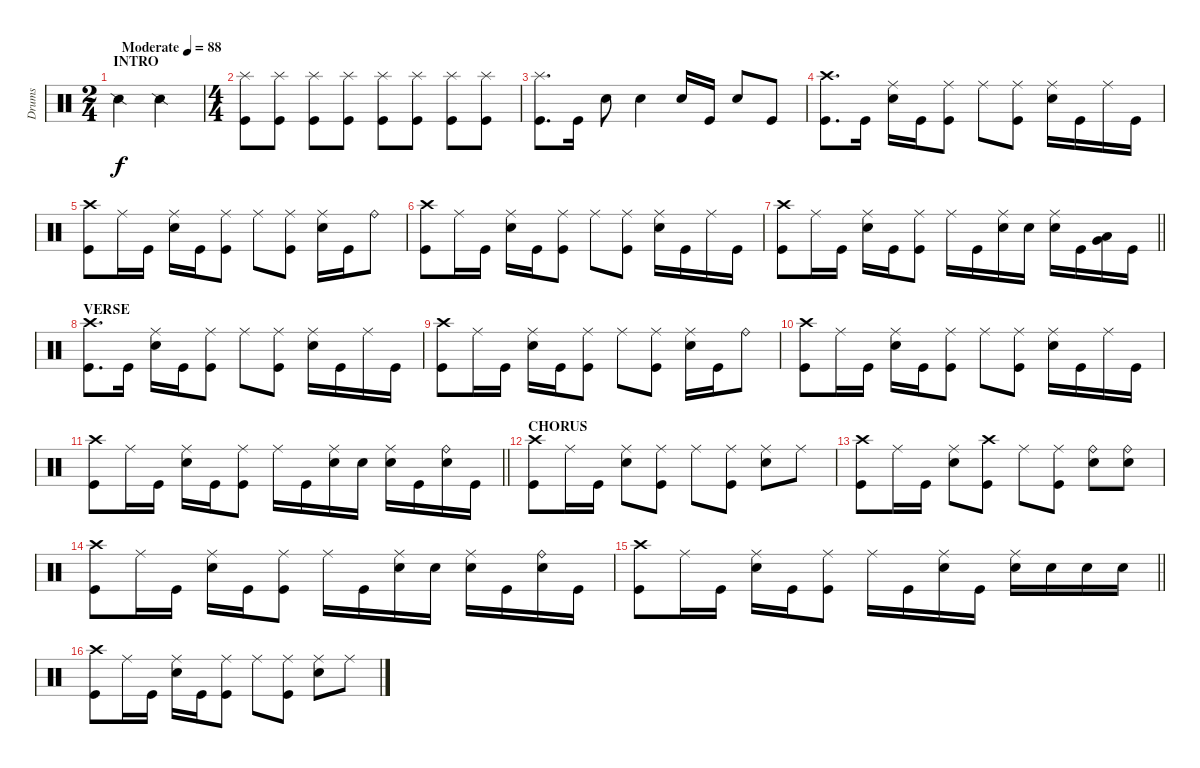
\track ("Drums" "Drums") {instrument percussion}
\staff
\articulation defaults
\ts (2 4)
\section ("" "INTRO")
\tempo (88 "Moderate")
\clef neutral
\ks c "Snare (side stick) 2".4{dy f} "Snare (side stick) 2".4
|
\ts (4 4)
("Splash (hit)" "Kick (hit)").8 ("Splash (hit)" "Kick (hit)").8 ("Splash (hit)" "Kick (hit)").8 ("Splash (hit)" "Kick (hit)").8 ("Splash (hit)" "Kick (hit)").8 ("Splash (hit)" "Kick (hit)").8 ("Splash (hit)" "Kick (hit)").8 ("Splash (hit)" "Kick (hit)").8 |
("Splash (hit)" "Kick (hit)").8{d} "Kick (hit)".16 "Electric Snare (hit)".8 "Electric Snare (hit)".4 "Electric Snare (hit)".16 "Kick (hit)".16 "Electric Snare (hit)".8 "Kick (hit)".8 |
("Crash high (hit)" "Kick (hit)").8{d} "Kick (hit)".16 ("Ride (middle)" "Electric Snare (hit)").16 "Kick (hit)".16 ("Ride (middle)" "Kick (hit)").8 "Ride (middle)".8 ("Ride (middle)" "Kick (hit)").8 ("Ride (middle)" "Electric Snare (hit)").16 "Kick (hit)".16 "Ride (middle)".16 "Kick (hit)".16 |
("Crash high (hit)" "Kick (hit)").8 "Ride (middle)".16 "Kick (hit)".16 ("Ride (middle)" "Electric Snare (hit)").16 "Kick (hit)".16 ("Ride (middle)" "Kick (hit)").8 "Ride (middle)".8 ("Ride (middle)" "Kick (hit)").8 ("Ride (middle)" "Electric Snare (hit)").16 "Kick (hit)".16 "Ride (bell)".8 |
("Crash high (hit)" "Kick (hit)").8 "Ride (middle)".16 "Kick (hit)".16 ("Ride (middle)" "Electric Snare (hit)").16 "Kick (hit)".16 ("Ride (middle)" "Kick (hit)").8 "Ride (middle)".8 ("Ride (middle)" "Kick (hit)").8 ("Ride (middle)" "Electric Snare (hit)").16 "Kick (hit)".16 "Ride (middle)".16 "Kick (hit)".16 |
\barLineRight lightlight
("Crash high (hit)" "Kick (hit)").8 "Ride (middle)".16 "Kick (hit)".16 ("Ride (middle)" "Electric Snare (hit)").16 "Kick (hit)".16 ("Ride (middle)" "Kick (hit)").8 "Ride (middle)".16 "Kick (hit)".16 ("Ride (middle)" "Electric Snare (hit)").16 "Electric Snare (hit)".16 ("Ride (middle)" "Electric Snare (hit)").16 "Kick (hit)".16 ("Very Low Tom (hit)" "Low Floor Tom (hit)").16 "Kick (hit)".16 |
\section ("" "VERSE")
("Crash high (hit)" "Kick (hit)").8{d} "Kick (hit)".16 ("Ride (middle)" "Electric Snare (hit)").16 "Kick (hit)".16 ("Ride (middle)" "Kick (hit)").8 "Ride (middle)".8 ("Ride (middle)" "Kick (hit)").8 ("Ride (middle)" "Electric Snare (hit)").16 "Kick (hit)".16 "Ride (middle)".16 "Kick (hit)".16 |
("Crash high (hit)" "Kick (hit)").8 "Ride (middle)".16 "Kick (hit)".16 ("Ride (middle)" "Electric Snare (hit)").16 "Kick (hit)".16 ("Ride (middle)" "Kick (hit)").8 "Ride (middle)".8 ("Ride (middle)" "Kick (hit)").8 ("Ride (middle)" "Electric Snare (hit)").16 "Kick (hit)".16 "Ride (bell)".8 |
("Crash high (hit)" "Kick (hit)").8 "Ride (middle)".16 "Kick (hit)".16 ("Ride (middle)" "Electric Snare (hit)").16 "Kick (hit)".16 ("Ride (middle)" "Kick (hit)").8 "Ride (middle)".8 ("Ride (middle)" "Kick (hit)").8 ("Ride (middle)" "Electric Snare (hit)").16 "Kick (hit)".16 "Ride (middle)".16 "Kick (hit)".16 |
\barLineRight lightlight
("Crash high (hit)" "Kick (hit)").8 "Ride (middle)".16 "Kick (hit)".16 ("Ride (middle)" "Electric Snare (hit)").16 "Kick (hit)".16 ("Ride (middle)" "Kick (hit)").8 "Ride (middle)".16 "Kick (hit)".16 ("Ride (middle)" "Electric Snare (hit)").16 "Electric Snare (hit)".16 ("Ride (middle)" "Electric Snare (hit)").16 "Kick (hit)".16 ("Ride (bell)" "Electric Snare (hit)").16 "Kick (hit)".16 |
\section ("" "CHORUS")
("Crash high (hit)" "Kick (hit)").8 "Ride (middle)".16 "Kick (hit)".16 ("Ride (middle)" "Electric Snare (hit)").8 ("Ride (middle)" "Kick (hit)").8 "Ride (middle)".8 ("Ride (middle)" "Kick (hit)").8 ("Ride (middle)" "Electric Snare (hit)").8 "Ride (middle)".8 |
("Crash high (hit)" "Kick (hit)").8 "Ride (middle)".16 "Kick (hit)".16 ("Ride (middle)" "Electric Snare (hit)").8 ("Crash high (hit)" "Kick (hit)").8 "Ride (middle)".8 ("Ride (middle)" "Kick (hit)").8 ("Ride (bell)" "Electric Snare (hit)").8 ("Ride (bell)" "Electric Snare (hit)").8 |
("Crash high (hit)" "Kick (hit)").8 "Ride (middle)".16 "Kick (hit)".16 ("Ride (middle)" "Electric Snare (hit)").16 "Kick (hit)".16 ("Ride (middle)" "Kick (hit)").8 "Ride (middle)".16 "Kick (hit)".16 ("Ride (middle)" "Electric Snare (hit)").16 "Electric Snare (hit)".16 ("Ride (middle)" "Electric Snare (hit)").16 "Kick (hit)".16 ("Ride (bell)" "Electric Snare (hit)").16 "Kick (hit)".16 |
\barLineRight lightlight
("Crash high (hit)" "Kick (hit)").8 "Ride (middle)".16 "Kick (hit)".16 ("Ride (middle)" "Electric Snare (hit)").16 "Kick (hit)".16 ("Ride (middle)" "Kick (hit)").8 "Ride (middle)".16 "Kick (hit)".16 ("Ride (middle)" "Electric Snare (hit)").16 "Kick (hit)".16 ("Ride (middle)" "Electric Snare (hit)").16 "Electric Snare (hit)".16 "Electric Snare (hit)".16 "Electric Snare (hit)".16 |
("Crash high (hit)" "Kick (hit)").8 "Ride (middle)".16 "Kick (hit)".16 ("Ride (middle)" "Electric Snare (hit)").16 "Kick (hit)".16 ("Ride (middle)" "Kick (hit)").8 "Ride (middle)".8 ("Ride (middle)" "Kick (hit)").8 ("Ride (middle)" "Electric Snare (hit)").8 "Ride (middle)".8
